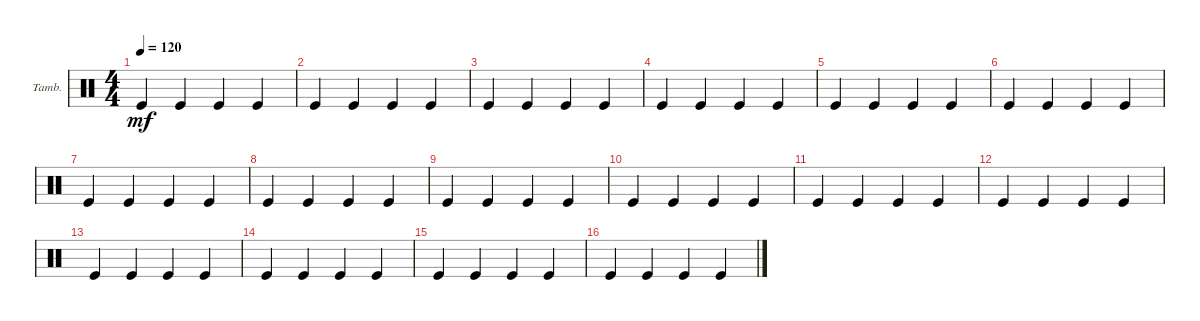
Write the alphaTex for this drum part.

\defaultSystemsLayout 4
\bracketExtendMode groupsimilarinstruments
\firstSystemTrackNameOrientation horizontal
\otherSystemsTrackNameOrientation horizontal
\track ("Tambourine" "Tamb.") {instrument percussion}
\staff {score}
\articulation defaults
\ts (4 4)
\tempo 120
\clef neutral
\ks c "Kick (hit)".4{dy mf} "Kick (hit)".4 "Kick (hit)".4 "Kick (hit)".4
|
"Kick (hit)".4 "Kick (hit)".4 "Kick (hit)".4 "Kick (hit)".4 |
"Kick (hit)".4 "Kick (hit)".4 "Kick (hit)".4 "Kick (hit)".4 |
"Kick (hit)".4 "Kick (hit)".4 "Kick (hit)".4 "Kick (hit)".4 |
"Kick (hit)".4 "Kick (hit)".4 "Kick (hit)".4 "Kick (hit)".4 |
"Kick (hit)".4 "Kick (hit)".4 "Kick (hit)".4 "Kick (hit)".4 |
"Kick (hit)".4 "Kick (hit)".4 "Kick (hit)".4 "Kick (hit)".4 |
"Kick (hit)".4 "Kick (hit)".4 "Kick (hit)".4 "Kick (hit)".4 |
"Kick (hit)".4 "Kick (hit)".4 "Kick (hit)".4 "Kick (hit)".4 |
"Kick (hit)".4 "Kick (hit)".4 "Kick (hit)".4 "Kick (hit)".4 |
"Kick (hit)".4 "Kick (hit)".4 "Kick (hit)".4 "Kick (hit)".4 |
"Kick (hit)".4 "Kick (hit)".4 "Kick (hit)".4 "Kick (hit)".4 |
"Kick (hit)".4 "Kick (hit)".4 "Kick (hit)".4 "Kick (hit)".4 |
"Kick (hit)".4 "Kick (hit)".4 "Kick (hit)".4 "Kick (hit)".4 |
"Kick (hit)".4 "Kick (hit)".4 "Kick (hit)".4 "Kick (hit)".4 |
"Kick (hit)".4 "Kick (hit)".4 "Kick (hit)".4 "Kick (hit)".4
